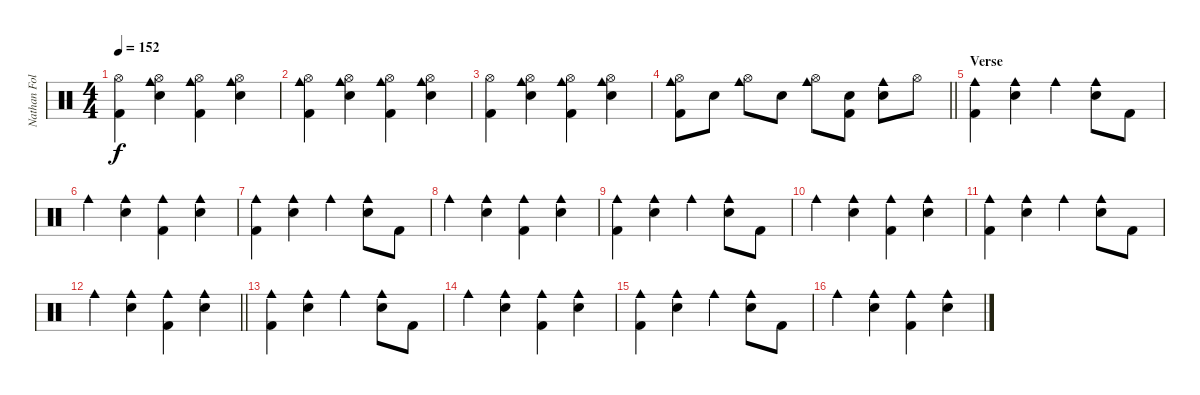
\track ("Nathan Followill" "Nathan Fol") {instrument percussion}
\staff {score}
\articulation defaults
\ts (4 4)
\tempo 152
\clef neutral
\ks c
("Hi-Hat (open)" "Kick (hit) 2").4{dy f} ("Hi-Hat (open)" "Cowbell medium (hit)" "Electric Snare (hit)").4 ("Hi-Hat (open)" "Cowbell medium (hit)" "Kick (hit) 2").4 ("Hi-Hat (open)" "Cowbell medium (hit)" "Electric Snare (hit)").4 |
("Hi-Hat (open)" "Cowbell medium (hit)" "Kick (hit) 2").4 ("Hi-Hat (open)" "Cowbell medium (hit)" "Electric Snare (hit)").4 ("Hi-Hat (open)" "Cowbell medium (hit)" "Kick (hit) 2").4 ("Hi-Hat (open)" "Cowbell medium (hit)" "Electric Snare (hit)").4 |
("Hi-Hat (open)" "Kick (hit) 2").4 ("Hi-Hat (open)" "Cowbell medium (hit)" "Electric Snare (hit)").4 ("Hi-Hat (open)" "Cowbell medium (hit)" "Kick (hit) 2").4 ("Hi-Hat (open)" "Cowbell medium (hit)" "Electric Snare (hit)").4 |
\barLineRight lightlight
("Hi-Hat (open)" "Cowbell medium (hit)" "Kick (hit) 2").8 "Electric Snare (hit)".8 ("Hi-Hat (open)" "Cowbell medium (hit)").8 "Electric Snare (hit)".8 ("Hi-Hat (open)" "Cowbell medium (hit)").8 ("Electric Snare (hit)" "Kick (hit) 2").8 ("Cowbell medium (hit)" "Electric Snare (hit)").8 "Hi-Hat (open)".8 |
\section ("" "Verse")
("Cowbell medium (hit)" "Kick (hit) 2").4 ("Cowbell medium (hit)" "Electric Snare (hit)").4 "Cowbell medium (hit)".4 ("Cowbell medium (hit)" "Electric Snare (hit)").8 "Kick (hit) 2".8 |
"Cowbell medium (hit)".4 ("Cowbell medium (hit)" "Electric Snare (hit)").4 ("Cowbell medium (hit)" "Kick (hit) 2").4 ("Cowbell medium (hit)" "Electric Snare (hit)").4 |
("Cowbell medium (hit)" "Kick (hit) 2").4 ("Cowbell medium (hit)" "Electric Snare (hit)").4 "Cowbell medium (hit)".4 ("Cowbell medium (hit)" "Electric Snare (hit)").8 "Kick (hit) 2".8 |
"Cowbell medium (hit)".4 ("Cowbell medium (hit)" "Electric Snare (hit)").4 ("Cowbell medium (hit)" "Kick (hit) 2").4 ("Cowbell medium (hit)" "Electric Snare (hit)").4 |
("Cowbell medium (hit)" "Kick (hit) 2").4 ("Cowbell medium (hit)" "Electric Snare (hit)").4 "Cowbell medium (hit)".4 ("Cowbell medium (hit)" "Electric Snare (hit)").8 "Kick (hit) 2".8 |
"Cowbell medium (hit)".4 ("Cowbell medium (hit)" "Electric Snare (hit)").4 ("Cowbell medium (hit)" "Kick (hit) 2").4 ("Cowbell medium (hit)" "Electric Snare (hit)").4 |
("Cowbell medium (hit)" "Kick (hit) 2").4 ("Cowbell medium (hit)" "Electric Snare (hit)").4 "Cowbell medium (hit)".4 ("Cowbell medium (hit)" "Electric Snare (hit)").8 "Kick (hit) 2".8 |
\barLineRight lightlight "Cowbell medium (hit)".4
("Cowbell medium (hit)" "Electric Snare (hit)").4 ("Cowbell medium (hit)" "Kick (hit) 2").4 ("Cowbell medium (hit)" "Electric Snare (hit)").4 |
\section ("" "")
("Cowbell medium (hit)" "Kick (hit) 2").4 ("Cowbell medium (hit)" "Electric Snare (hit)").4 "Cowbell medium (hit)".4 ("Cowbell medium (hit)" "Electric Snare (hit)").8 "Kick (hit) 2".8 |
"Cowbell medium (hit)".4 ("Cowbell medium (hit)" "Electric Snare (hit)").4 ("Cowbell medium (hit)" "Kick (hit) 2").4 ("Cowbell medium (hit)" "Electric Snare (hit)").4 |
("Cowbell medium (hit)" "Kick (hit) 2").4 ("Cowbell medium (hit)" "Electric Snare (hit)").4 "Cowbell medium (hit)".4 ("Cowbell medium (hit)" "Electric Snare (hit)").8 "Kick (hit) 2".8 |
"Cowbell medium (hit)".4 ("Cowbell medium (hit)" "Electric Snare (hit)").4 ("Cowbell medium (hit)" "Kick (hit) 2").4 ("Cowbell medium (hit)" "Electric Snare (hit)").4
